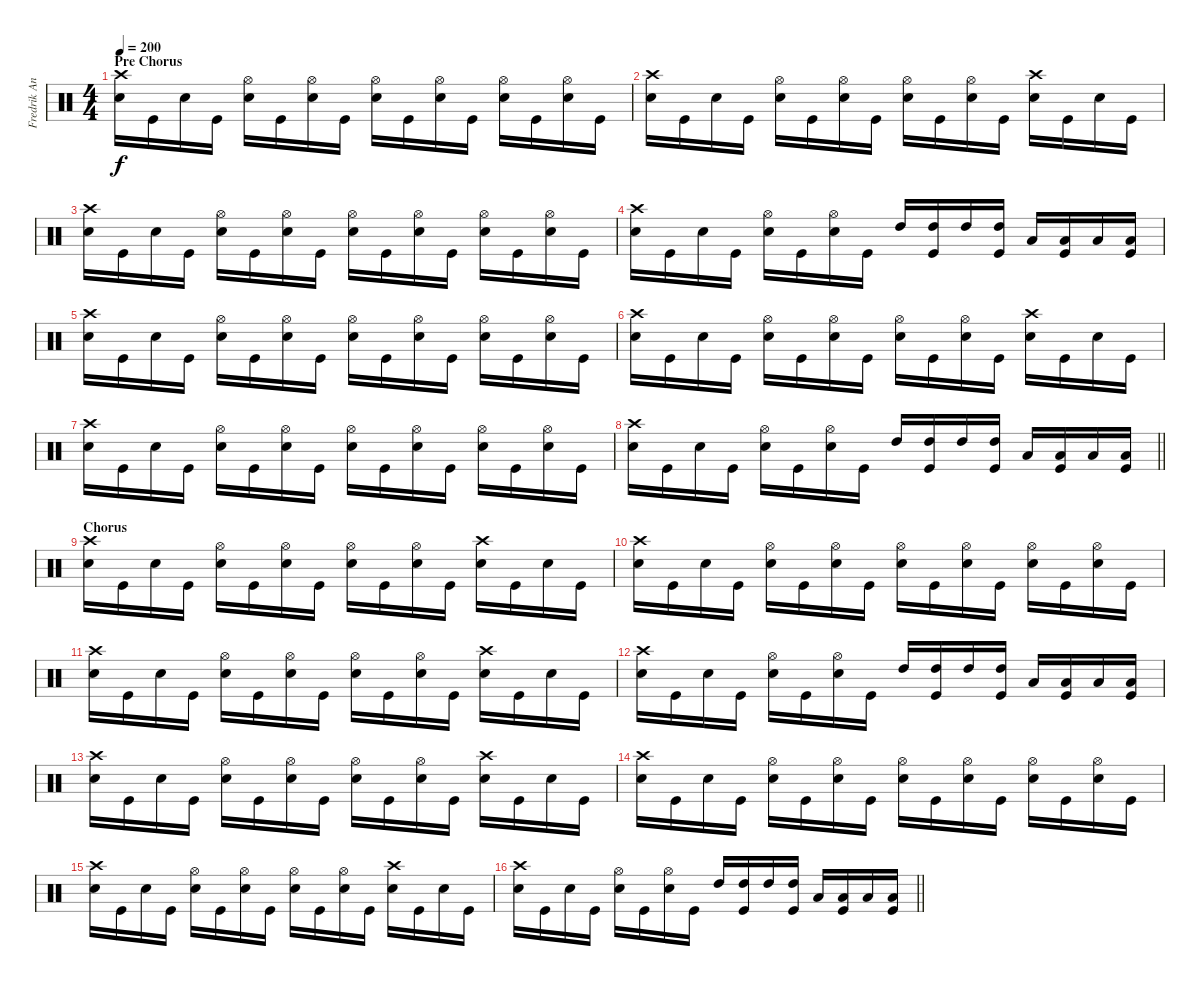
\track ("Fredrik Andersson " "Fredrik An") {instrument percussion}
\staff {score}
\articulation defaults
\ts (4 4)
\section ("" "Pre Chorus")
\tempo 200
\clef neutral
\ks c
("Crash high (hit)" "Snare (hit) 2").16{dy f} "Kick (hit)".16 "Snare (hit) 2".16 "Kick (hit)".16 ("Hi-Hat (open)" "Snare (hit) 2").16 "Kick (hit)".16 ("Hi-Hat (open)" "Snare (hit) 2").16 "Kick (hit)".16 ("Hi-Hat (open)" "Snare (hit) 2").16 "Kick (hit)".16 ("Hi-Hat (open)" "Snare (hit) 2").16 "Kick (hit)".16 ("Hi-Hat (open)" "Snare (hit) 2").16 "Kick (hit)".16 ("Hi-Hat (open)" "Snare (hit) 2").16 "Kick (hit)".16 |
("Crash high (hit)" "Snare (hit) 2").16 "Kick (hit)".16 "Snare (hit) 2".16 "Kick (hit)".16 ("Hi-Hat (open)" "Snare (hit) 2").16 "Kick (hit)".16 ("Hi-Hat (open)" "Snare (hit) 2").16 "Kick (hit)".16 ("Hi-Hat (open)" "Snare (hit) 2").16 "Kick (hit)".16 ("Hi-Hat (open)" "Snare (hit) 2").16 "Kick (hit)".16 ("Crash high (hit)" "Snare (hit) 2").16 "Kick (hit)".16 "Snare (hit) 2".16 "Kick (hit)".16 |
("Crash high (hit)" "Snare (hit) 2").16 "Kick (hit)".16 "Snare (hit) 2".16 "Kick (hit)".16 ("Hi-Hat (open)" "Snare (hit) 2").16 "Kick (hit)".16 ("Hi-Hat (open)" "Snare (hit) 2").16 "Kick (hit)".16 ("Hi-Hat (open)" "Snare (hit) 2").16 "Kick (hit)".16 ("Hi-Hat (open)" "Snare (hit) 2").16 "Kick (hit)".16 ("Hi-Hat (open)" "Snare (hit) 2").16 "Kick (hit)".16 ("Hi-Hat (open)" "Snare (hit) 2").16 "Kick (hit)".16 |
("Crash high (hit)" "Snare (hit) 2").16 "Kick (hit)".16 "Snare (hit) 2".16 "Kick (hit)".16 ("Hi-Hat (open)" "Snare (hit) 2").16 "Kick (hit)".16 ("Hi-Hat (open)" "Snare (hit) 2").16 "Kick (hit)".16 "High Tom (hit)".16 ("High Tom (hit)" "Kick (hit)").16 "High Tom (hit)".16 ("High Tom (hit)" "Kick (hit)").16 "Low Tom (hit)".16 ("Low Tom (hit)" "Kick (hit)").16 "Low Tom (hit)".16 ("Low Tom (hit)" "Kick (hit)").16 |
("Crash high (hit)" "Snare (hit) 2").16 "Kick (hit)".16 "Snare (hit) 2".16 "Kick (hit)".16 ("Hi-Hat (open)" "Snare (hit) 2").16 "Kick (hit)".16 ("Hi-Hat (open)" "Snare (hit) 2").16 "Kick (hit)".16 ("Hi-Hat (open)" "Snare (hit) 2").16 "Kick (hit)".16 ("Hi-Hat (open)" "Snare (hit) 2").16 "Kick (hit)".16 ("Hi-Hat (open)" "Snare (hit) 2").16 "Kick (hit)".16 ("Hi-Hat (open)" "Snare (hit) 2").16 "Kick (hit)".16 |
("Crash high (hit)" "Snare (hit) 2").16 "Kick (hit)".16 "Snare (hit) 2".16 "Kick (hit)".16 ("Hi-Hat (open)" "Snare (hit) 2").16 "Kick (hit)".16 ("Hi-Hat (open)" "Snare (hit) 2").16 "Kick (hit)".16 ("Hi-Hat (open)" "Snare (hit) 2").16 "Kick (hit)".16 ("Hi-Hat (open)" "Snare (hit) 2").16 "Kick (hit)".16 ("Crash high (hit)" "Snare (hit) 2").16 "Kick (hit)".16 "Snare (hit) 2".16 "Kick (hit)".16 |
("Crash high (hit)" "Snare (hit) 2").16 "Kick (hit)".16 "Snare (hit) 2".16 "Kick (hit)".16 ("Hi-Hat (open)" "Snare (hit) 2").16 "Kick (hit)".16 ("Hi-Hat (open)" "Snare (hit) 2").16 "Kick (hit)".16 ("Hi-Hat (open)" "Snare (hit) 2").16 "Kick (hit)".16 ("Hi-Hat (open)" "Snare (hit) 2").16 "Kick (hit)".16 ("Hi-Hat (open)" "Snare (hit) 2").16 "Kick (hit)".16 ("Hi-Hat (open)" "Snare (hit) 2").16 "Kick (hit)".16 |
\barLineRight lightlight
("Crash high (hit)" "Snare (hit) 2").16 "Kick (hit)".16 "Snare (hit) 2".16 "Kick (hit)".16 ("Hi-Hat (open)" "Snare (hit) 2").16 "Kick (hit)".16 ("Hi-Hat (open)" "Snare (hit) 2").16 "Kick (hit)".16 "High Tom (hit)".16 ("High Tom (hit)" "Kick (hit)").16 "High Tom (hit)".16 ("High Tom (hit)" "Kick (hit)").16 "Low Tom (hit)".16 ("Low Tom (hit)" "Kick (hit)").16 "Low Tom (hit)".16 ("Low Tom (hit)" "Kick (hit)").16 |
\section ("" "Chorus")
("Crash high (hit)" "Snare (hit) 2").16 "Kick (hit)".16 "Snare (hit) 2".16 "Kick (hit)".16 ("Hi-Hat (open)" "Snare (hit) 2").16 "Kick (hit)".16 ("Hi-Hat (open)" "Snare (hit) 2").16 "Kick (hit)".16 ("Hi-Hat (open)" "Snare (hit) 2").16 "Kick (hit)".16 ("Hi-Hat (open)" "Snare (hit) 2").16 "Kick (hit)".16 ("Crash high (hit)" "Snare (hit) 2").16 "Kick (hit)".16 "Snare (hit) 2".16 "Kick (hit)".16 |
("Crash high (hit)" "Snare (hit) 2").16 "Kick (hit)".16 "Snare (hit) 2".16 "Kick (hit)".16 ("Hi-Hat (open)" "Snare (hit) 2").16 "Kick (hit)".16 ("Hi-Hat (open)" "Snare (hit) 2").16 "Kick (hit)".16 ("Hi-Hat (open)" "Snare (hit) 2").16 "Kick (hit)".16 ("Hi-Hat (open)" "Snare (hit) 2").16 "Kick (hit)".16 ("Hi-Hat (open)" "Snare (hit) 2").16 "Kick (hit)".16 ("Hi-Hat (open)" "Snare (hit) 2").16 "Kick (hit)".16 |
("Crash high (hit)" "Snare (hit) 2").16 "Kick (hit)".16 "Snare (hit) 2".16 "Kick (hit)".16 ("Hi-Hat (open)" "Snare (hit) 2").16 "Kick (hit)".16 ("Hi-Hat (open)" "Snare (hit) 2").16 "Kick (hit)".16 ("Hi-Hat (open)" "Snare (hit) 2").16 "Kick (hit)".16 ("Hi-Hat (open)" "Snare (hit) 2").16 "Kick (hit)".16 ("Crash high (hit)" "Snare (hit) 2").16 "Kick (hit)".16 "Snare (hit) 2".16 "Kick (hit)".16 |
("Crash high (hit)" "Snare (hit) 2").16 "Kick (hit)".16 "Snare (hit) 2".16 "Kick (hit)".16 ("Hi-Hat (open)" "Snare (hit) 2").16 "Kick (hit)".16 ("Hi-Hat (open)" "Snare (hit) 2").16 "Kick (hit)".16 "High Tom (hit)".16 ("High Tom (hit)" "Kick (hit)").16 "High Tom (hit)".16 ("High Tom (hit)" "Kick (hit)").16 "Low Tom (hit)".16 ("Low Tom (hit)" "Kick (hit)").16 "Low Tom (hit)".16 ("Low Tom (hit)" "Kick (hit)").16 |
("Crash high (hit)" "Snare (hit) 2").16 "Kick (hit)".16 "Snare (hit) 2".16 "Kick (hit)".16 ("Hi-Hat (open)" "Snare (hit) 2").16 "Kick (hit)".16 ("Hi-Hat (open)" "Snare (hit) 2").16 "Kick (hit)".16 ("Hi-Hat (open)" "Snare (hit) 2").16 "Kick (hit)".16 ("Hi-Hat (open)" "Snare (hit) 2").16 "Kick (hit)".16 ("Crash high (hit)" "Snare (hit) 2").16 "Kick (hit)".16 "Snare (hit) 2".16 "Kick (hit)".16 |
("Crash high (hit)" "Snare (hit) 2").16 "Kick (hit)".16 "Snare (hit) 2".16 "Kick (hit)".16 ("Hi-Hat (open)" "Snare (hit) 2").16 "Kick (hit)".16 ("Hi-Hat (open)" "Snare (hit) 2").16 "Kick (hit)".16 ("Hi-Hat (open)" "Snare (hit) 2").16 "Kick (hit)".16 ("Hi-Hat (open)" "Snare (hit) 2").16 "Kick (hit)".16 ("Hi-Hat (open)" "Snare (hit) 2").16 "Kick (hit)".16 ("Hi-Hat (open)" "Snare (hit) 2").16 "Kick (hit)".16 |
("Crash high (hit)" "Snare (hit) 2").16 "Kick (hit)".16 "Snare (hit) 2".16 "Kick (hit)".16 ("Hi-Hat (open)" "Snare (hit) 2").16 "Kick (hit)".16 ("Hi-Hat (open)" "Snare (hit) 2").16 "Kick (hit)".16 ("Hi-Hat (open)" "Snare (hit) 2").16 "Kick (hit)".16 ("Hi-Hat (open)" "Snare (hit) 2").16 "Kick (hit)".16 ("Crash high (hit)" "Snare (hit) 2").16 "Kick (hit)".16 "Snare (hit) 2".16 "Kick (hit)".16 |
\barLineRight lightlight
("Crash high (hit)" "Snare (hit) 2").16 "Kick (hit)".16 "Snare (hit) 2".16 "Kick (hit)".16 ("Hi-Hat (open)" "Snare (hit) 2").16 "Kick (hit)".16 ("Hi-Hat (open)" "Snare (hit) 2").16 "Kick (hit)".16 "High Tom (hit)".16 ("High Tom (hit)" "Kick (hit)").16 "High Tom (hit)".16 ("High Tom (hit)" "Kick (hit)").16 "Low Tom (hit)".16 ("Low Tom (hit)" "Kick (hit)").16 "Low Tom (hit)".16 ("Low Tom (hit)" "Kick (hit)").16
